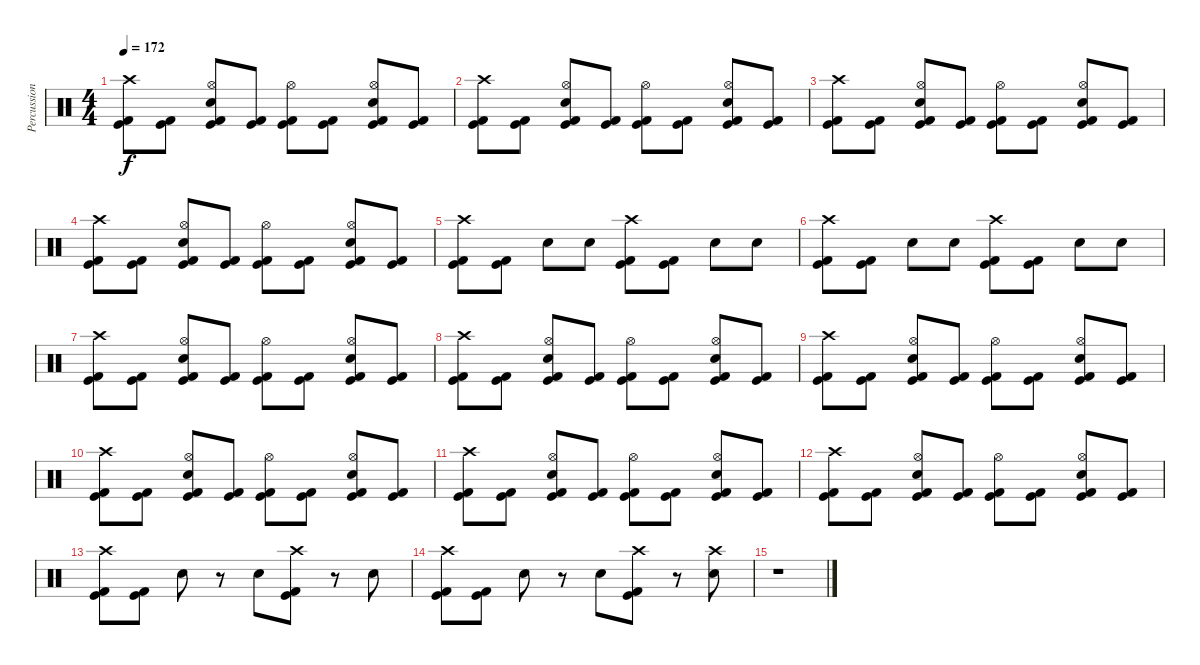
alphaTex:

\track ("Percussion" "Percussion") {instrument percussion}
\staff {score}
\articulation defaults
\ts (4 4)
\tempo 172
\clef neutral
\ks c
("Crash high (hit)" "Kick (hit)" "Kick (hit) 2").8{dy f} ("Kick (hit)" "Kick (hit) 2").8 ("Hi-Hat (open)" "Snare (hit) 2" "Kick (hit)" "Kick (hit) 2").8 ("Kick (hit)" "Kick (hit) 2").8 ("Hi-Hat (open)" "Kick (hit)" "Kick (hit) 2").8 ("Kick (hit)" "Kick (hit) 2").8 ("Hi-Hat (open)" "Snare (hit) 2" "Kick (hit)" "Kick (hit) 2").8 ("Kick (hit)" "Kick (hit) 2").8 |
("Crash high (hit)" "Kick (hit)" "Kick (hit) 2").8 ("Kick (hit)" "Kick (hit) 2").8 ("Hi-Hat (open)" "Snare (hit) 2" "Kick (hit)" "Kick (hit) 2").8 ("Kick (hit)" "Kick (hit) 2").8 ("Hi-Hat (open)" "Kick (hit)" "Kick (hit) 2").8 ("Kick (hit)" "Kick (hit) 2").8 ("Hi-Hat (open)" "Snare (hit) 2" "Kick (hit)" "Kick (hit) 2").8 ("Kick (hit)" "Kick (hit) 2").8 |
("Crash high (hit)" "Kick (hit)" "Kick (hit) 2").8 ("Kick (hit)" "Kick (hit) 2").8 ("Hi-Hat (open)" "Snare (hit) 2" "Kick (hit)" "Kick (hit) 2").8 ("Kick (hit)" "Kick (hit) 2").8 ("Hi-Hat (open)" "Kick (hit)" "Kick (hit) 2").8 ("Kick (hit)" "Kick (hit) 2").8 ("Hi-Hat (open)" "Snare (hit) 2" "Kick (hit)" "Kick (hit) 2").8 ("Kick (hit)" "Kick (hit) 2").8 |
("Crash high (hit)" "Kick (hit)" "Kick (hit) 2").8 ("Kick (hit)" "Kick (hit) 2").8 ("Hi-Hat (open)" "Snare (hit) 2" "Kick (hit)" "Kick (hit) 2").8 ("Kick (hit)" "Kick (hit) 2").8 ("Hi-Hat (open)" "Kick (hit)" "Kick (hit) 2").8 ("Kick (hit)" "Kick (hit) 2").8 ("Hi-Hat (open)" "Snare (hit) 2" "Kick (hit)" "Kick (hit) 2").8 ("Kick (hit)" "Kick (hit) 2").8 |
("Crash high (hit)" "Kick (hit)" "Kick (hit) 2").8 ("Kick (hit)" "Kick (hit) 2").8 "Snare (hit) 2".8 "Snare (hit) 2".8 ("Crash high (hit)" "Kick (hit)" "Kick (hit) 2").8 ("Kick (hit)" "Kick (hit) 2").8 "Snare (hit) 2".8 "Snare (hit) 2".8 |
("Crash high (hit)" "Kick (hit)" "Kick (hit) 2").8 ("Kick (hit)" "Kick (hit) 2").8 "Snare (hit) 2".8 "Snare (hit) 2".8 ("Crash high (hit)" "Kick (hit)" "Kick (hit) 2").8 ("Kick (hit)" "Kick (hit) 2").8 "Snare (hit) 2".8 "Snare (hit) 2".8 |
("Crash high (hit)" "Kick (hit)" "Kick (hit) 2").8 ("Kick (hit)" "Kick (hit) 2").8 ("Hi-Hat (open)" "Snare (hit) 2" "Kick (hit)" "Kick (hit) 2").8 ("Kick (hit)" "Kick (hit) 2").8 ("Hi-Hat (open)" "Kick (hit)" "Kick (hit) 2").8 ("Kick (hit)" "Kick (hit) 2").8 ("Hi-Hat (open)" "Snare (hit) 2" "Kick (hit)" "Kick (hit) 2").8 ("Kick (hit)" "Kick (hit) 2").8 |
("Crash high (hit)" "Kick (hit)" "Kick (hit) 2").8 ("Kick (hit)" "Kick (hit) 2").8 ("Hi-Hat (open)" "Snare (hit) 2" "Kick (hit)" "Kick (hit) 2").8 ("Kick (hit)" "Kick (hit) 2").8 ("Hi-Hat (open)" "Kick (hit)" "Kick (hit) 2").8 ("Kick (hit)" "Kick (hit) 2").8 ("Hi-Hat (open)" "Snare (hit) 2" "Kick (hit)" "Kick (hit) 2").8 ("Kick (hit)" "Kick (hit) 2").8 |
("Crash high (hit)" "Kick (hit)" "Kick (hit) 2").8 ("Kick (hit)" "Kick (hit) 2").8 ("Hi-Hat (open)" "Snare (hit) 2" "Kick (hit)" "Kick (hit) 2").8 ("Kick (hit)" "Kick (hit) 2").8 ("Hi-Hat (open)" "Kick (hit)" "Kick (hit) 2").8 ("Kick (hit)" "Kick (hit) 2").8 ("Hi-Hat (open)" "Snare (hit) 2" "Kick (hit)" "Kick (hit) 2").8 ("Kick (hit)" "Kick (hit) 2").8 |
("Crash high (hit)" "Kick (hit)" "Kick (hit) 2").8 ("Kick (hit)" "Kick (hit) 2").8 ("Hi-Hat (open)" "Snare (hit) 2" "Kick (hit)" "Kick (hit) 2").8 ("Kick (hit)" "Kick (hit) 2").8 ("Hi-Hat (open)" "Kick (hit)" "Kick (hit) 2").8 ("Kick (hit)" "Kick (hit) 2").8 ("Hi-Hat (open)" "Snare (hit) 2" "Kick (hit)" "Kick (hit) 2").8 ("Kick (hit)" "Kick (hit) 2").8 |
("Crash high (hit)" "Kick (hit)" "Kick (hit) 2").8 ("Kick (hit)" "Kick (hit) 2").8 ("Hi-Hat (open)" "Snare (hit) 2" "Kick (hit)" "Kick (hit) 2").8 ("Kick (hit)" "Kick (hit) 2").8 ("Hi-Hat (open)" "Kick (hit)" "Kick (hit) 2").8 ("Kick (hit)" "Kick (hit) 2").8 ("Hi-Hat (open)" "Snare (hit) 2" "Kick (hit)" "Kick (hit) 2").8 ("Kick (hit)" "Kick (hit) 2").8 |
("Crash high (hit)" "Kick (hit)" "Kick (hit) 2").8 ("Kick (hit)" "Kick (hit) 2").8 ("Hi-Hat (open)" "Snare (hit) 2" "Kick (hit)" "Kick (hit) 2").8 ("Kick (hit)" "Kick (hit) 2").8 ("Hi-Hat (open)" "Kick (hit)" "Kick (hit) 2").8 ("Kick (hit)" "Kick (hit) 2").8 ("Hi-Hat (open)" "Snare (hit) 2" "Kick (hit)" "Kick (hit) 2").8 ("Kick (hit)" "Kick (hit) 2").8 |
("Crash high (hit)" "Kick (hit)" "Kick (hit) 2").8 ("Kick (hit)" "Kick (hit) 2").8 "Snare (hit) 2".8 r.8 "Snare (hit) 2".8 ("Crash high (hit)" "Kick (hit)" "Kick (hit) 2").8 r.8 "Snare (hit) 2".8 |
("Crash high (hit)" "Kick (hit)" "Kick (hit) 2").8 ("Kick (hit)" "Kick (hit) 2").8 "Snare (hit) 2".8 r.8 "Snare (hit) 2".8 ("Crash high (hit)" "Kick (hit)" "Kick (hit) 2").8 r.8 ("Crash high (hit)" "Snare (hit) 2").8 |
r.1
